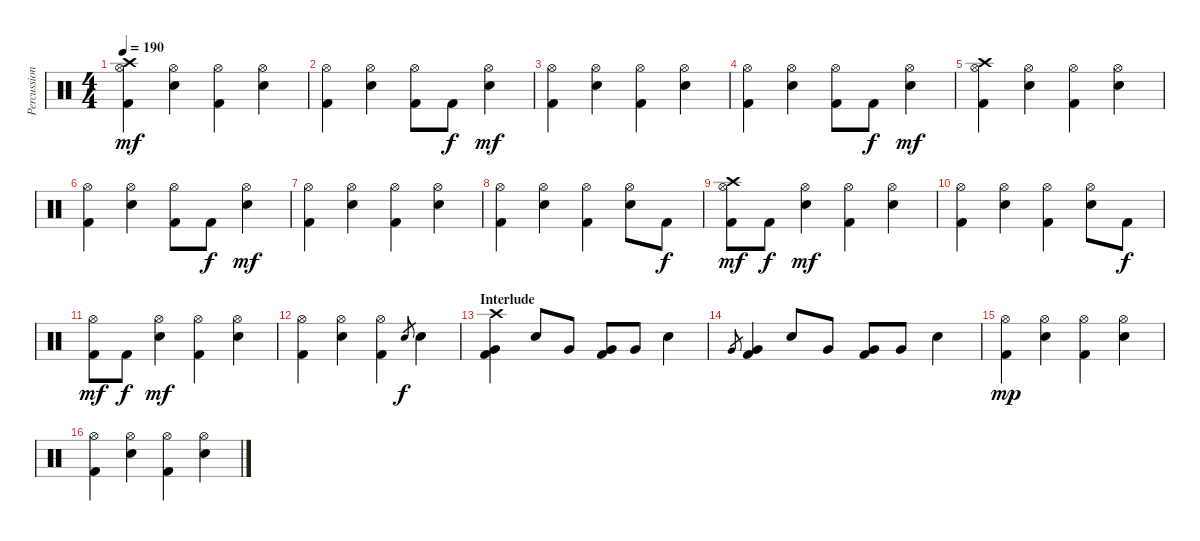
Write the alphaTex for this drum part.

\track ("Percussion" "Percussion") {instrument percussion}
\staff {score}
\articulation defaults
\ts (4 4)
\tempo 190
\clef neutral
\ks c
("Crash high (hit)" "Hi-Hat (open)" "Kick (hit) 2").4{dy mf} ("Hi-Hat (open)" "Electric Snare (hit)").4 ("Hi-Hat (open)" "Kick (hit) 2").4 ("Hi-Hat (open)" "Electric Snare (hit)").4 |
("Hi-Hat (open)" "Kick (hit) 2").4 ("Hi-Hat (open)" "Electric Snare (hit)").4 ("Hi-Hat (open)" "Kick (hit) 2").8 "Kick (hit) 2".8{dy f} ("Hi-Hat (open)" "Electric Snare (hit)").4{dy mf} |
("Hi-Hat (open)" "Kick (hit) 2").4 ("Hi-Hat (open)" "Electric Snare (hit)").4 ("Hi-Hat (open)" "Kick (hit) 2").4 ("Hi-Hat (open)" "Electric Snare (hit)").4 |
("Hi-Hat (open)" "Kick (hit) 2").4 ("Hi-Hat (open)" "Electric Snare (hit)").4 ("Hi-Hat (open)" "Kick (hit) 2").8 "Kick (hit) 2".8{dy f} ("Hi-Hat (open)" "Electric Snare (hit)").4{dy mf} |
("Crash high (hit)" "Hi-Hat (open)" "Kick (hit) 2").4 ("Hi-Hat (open)" "Electric Snare (hit)").4 ("Hi-Hat (open)" "Kick (hit) 2").4 ("Hi-Hat (open)" "Electric Snare (hit)").4 |
("Hi-Hat (open)" "Kick (hit) 2").4 ("Hi-Hat (open)" "Electric Snare (hit)").4 ("Hi-Hat (open)" "Kick (hit) 2").8 "Kick (hit) 2".8{dy f} ("Hi-Hat (open)" "Electric Snare (hit)").4{dy mf} |
("Hi-Hat (open)" "Kick (hit) 2").4 ("Hi-Hat (open)" "Electric Snare (hit)").4 ("Hi-Hat (open)" "Kick (hit) 2").4 ("Hi-Hat (open)" "Electric Snare (hit)").4 |
("Hi-Hat (open)" "Kick (hit) 2").4 ("Hi-Hat (open)" "Electric Snare (hit)").4 ("Hi-Hat (open)" "Kick (hit) 2").4 ("Hi-Hat (open)" "Electric Snare (hit)").8 "Kick (hit) 2".8{dy f} |
("Crash high (hit)" "Hi-Hat (open)" "Kick (hit) 2").8{dy mf} "Kick (hit) 2".8{dy f} ("Hi-Hat (open)" "Electric Snare (hit)").4{dy mf} ("Hi-Hat (open)" "Kick (hit) 2").4 ("Hi-Hat (open)" "Electric Snare (hit)").4 |
("Hi-Hat (open)" "Kick (hit) 2").4 ("Hi-Hat (open)" "Electric Snare (hit)").4 ("Hi-Hat (open)" "Kick (hit) 2").4 ("Hi-Hat (open)" "Electric Snare (hit)").8 "Kick (hit) 2".8{dy f} |
("Hi-Hat (open)" "Kick (hit) 2").8{dy mf} "Kick (hit) 2".8{dy f} ("Hi-Hat (open)" "Electric Snare (hit)").4{dy mf} ("Hi-Hat (open)" "Kick (hit) 2").4 ("Hi-Hat (open)" "Electric Snare (hit)").4 |
("Hi-Hat (open)" "Kick (hit) 2").4 ("Hi-Hat (open)" "Electric Snare (hit)").4 ("Hi-Hat (open)" "Kick (hit) 2").4 "Electric Snare (hit)".8{gr dy f} "Electric Snare (hit)".4 |
\section ("" "Interlude")
("Crash high (hit)" "Very Low Tom (hit)" "Kick (hit) 2").4 "Electric Snare (hit)".8 "Very Low Tom (hit)".8 ("Very Low Tom (hit)" "Kick (hit) 2").8 "Very Low Tom (hit)".8 "Electric Snare (hit)".4 |
"Very Low Tom (hit)".8{gr} ("Very Low Tom (hit)" "Kick (hit) 2").4 "Electric Snare (hit)".8 "Very Low Tom (hit)".8 ("Very Low Tom (hit)" "Kick (hit) 2").8 "Very Low Tom (hit)".8 "Electric Snare (hit)".4 |
("Hi-Hat (open)" "Kick (hit) 2").4{dy mp} ("Hi-Hat (open)" "Electric Snare (hit)").4 ("Hi-Hat (open)" "Kick (hit) 2").4 ("Hi-Hat (open)" "Electric Snare (hit)").4 |
("Hi-Hat (open)" "Kick (hit) 2").4 ("Hi-Hat (open)" "Electric Snare (hit)").4 ("Hi-Hat (open)" "Kick (hit) 2").4 ("Hi-Hat (open)" "Electric Snare (hit)").4
